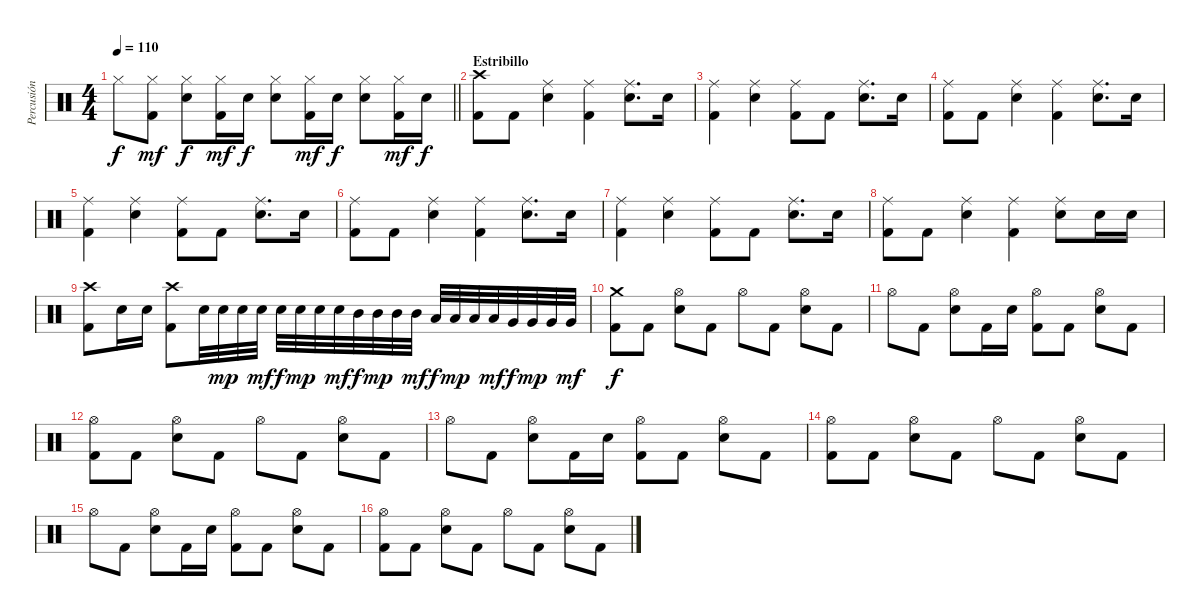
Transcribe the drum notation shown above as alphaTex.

\track ("Percusión" "Percusión") {instrument percussion}
\staff {score}
\articulation defaults
\ts (4 4)
\tempo 110
\clef neutral
\barLineRight lightlight
\ks c "Hi-Hat (closed)".8{dy f}
("Hi-Hat (closed)" "Kick (hit) 2").8{dy mf} ("Hi-Hat (closed)" "Electric Snare (hit)").8{dy f} ("Hi-Hat (closed)" "Kick (hit) 2").16{dy mf} "Electric Snare (hit)".16{dy f} ("Hi-Hat (closed)" "Electric Snare (hit)").8 ("Hi-Hat (closed)" "Kick (hit) 2").16{dy mf} "Electric Snare (hit)".16{dy f} ("Hi-Hat (closed)" "Electric Snare (hit)").8 ("Hi-Hat (closed)" "Kick (hit) 2").16{dy mf} "Electric Snare (hit)".16{dy f} |
\section ("" "Estribillo")
("Crash high (hit)" "Kick (hit) 2").8 "Kick (hit) 2".8 ("Ride (middle)" "Electric Snare (hit)").4 ("Ride (middle)" "Kick (hit) 2").4 ("Ride (middle)" "Electric Snare (hit)").8{d} "Electric Snare (hit)".16 |
("Ride (middle)" "Kick (hit) 2").4 ("Ride (middle)" "Electric Snare (hit)").4 ("Ride (middle)" "Kick (hit) 2").8 "Kick (hit) 2".8 ("Ride (middle)" "Electric Snare (hit)").8{d} "Electric Snare (hit)".16 |
("Ride (middle)" "Kick (hit) 2").8 "Kick (hit) 2".8 ("Ride (middle)" "Electric Snare (hit)").4 ("Ride (middle)" "Kick (hit) 2").4 ("Ride (middle)" "Electric Snare (hit)").8{d} "Electric Snare (hit)".16 |
("Ride (middle)" "Kick (hit) 2").4 ("Ride (middle)" "Electric Snare (hit)").4 ("Ride (middle)" "Kick (hit) 2").8 "Kick (hit) 2".8 ("Ride (middle)" "Electric Snare (hit)").8{d} "Electric Snare (hit)".16 |
("Ride (middle)" "Kick (hit) 2").8 "Kick (hit) 2".8 ("Ride (middle)" "Electric Snare (hit)").4 ("Ride (middle)" "Kick (hit) 2").4 ("Ride (middle)" "Electric Snare (hit)").8{d} "Electric Snare (hit)".16 |
("Ride (middle)" "Kick (hit) 2").4 ("Ride (middle)" "Electric Snare (hit)").4 ("Ride (middle)" "Kick (hit) 2").8 "Kick (hit) 2".8 ("Ride (middle)" "Electric Snare (hit)").8{d} "Electric Snare (hit)".16 |
("Ride (middle)" "Kick (hit) 2").8 "Kick (hit) 2".8 ("Ride (middle)" "Electric Snare (hit)").4 ("Ride (middle)" "Kick (hit) 2").4 ("Ride (middle)" "Electric Snare (hit)").8 "Electric Snare (hit)".16 "Electric Snare (hit)".16 |
("Crash high (hit)" "Kick (hit) 2").8 "Electric Snare (hit)".16 "Electric Snare (hit)".16 ("Crash high (hit)" "Kick (hit) 2").8 "Electric Snare (hit)".32 "Electric Snare (hit)".32{dy mp} "Electric Snare (hit)".32 "Electric Snare (hit)".32{dy mf} "Electric Snare (hit)".32{dy f} "Electric Snare (hit)".32{dy mp} "Electric Snare (hit)".32 "Electric Snare (hit)".32{dy mf} "Mid Tom (hit)".32{dy f} "Mid Tom (hit)".32{dy mp} "Mid Tom (hit)".32 "Mid Tom (hit)".32{dy mf} "Low Tom (hit)".32{dy f} "Low Tom (hit)".32{dy mp} "Low Tom (hit)".32 "Low Tom (hit)".32{dy mf} "Very Low Tom (hit)".32{dy f} "Very Low Tom (hit)".32{dy mp} "Very Low Tom (hit)".32 "Very Low Tom (hit)".32{dy mf} |
("Crash medium (hit)" "Kick (hit) 2").8{dy f} "Kick (hit) 2".8 ("Hi-Hat (open)" "Electric Snare (hit)").8 "Kick (hit) 2".8 "Hi-Hat (open)".8 "Kick (hit) 2".8 ("Hi-Hat (open)" "Electric Snare (hit)").8 "Kick (hit) 2".8 |
"Hi-Hat (open)".8 "Kick (hit) 2".8 ("Hi-Hat (open)" "Electric Snare (hit)").8 "Kick (hit) 2".16 "Electric Snare (hit)".16 ("Hi-Hat (open)" "Kick (hit) 2").8 "Kick (hit) 2".8 ("Hi-Hat (open)" "Electric Snare (hit)").8 "Kick (hit) 2".8 |
("Hi-Hat (open)" "Kick (hit) 2").8 "Kick (hit) 2".8 ("Hi-Hat (open)" "Electric Snare (hit)").8 "Kick (hit) 2".8 "Hi-Hat (open)".8 "Kick (hit) 2".8 ("Hi-Hat (open)" "Electric Snare (hit)").8 "Kick (hit) 2".8 |
"Hi-Hat (open)".8 "Kick (hit) 2".8 ("Hi-Hat (open)" "Electric Snare (hit)").8 "Kick (hit) 2".16 "Electric Snare (hit)".16 ("Hi-Hat (open)" "Kick (hit) 2").8 "Kick (hit) 2".8 ("Hi-Hat (open)" "Electric Snare (hit)").8 "Kick (hit) 2".8 |
("Hi-Hat (open)" "Kick (hit) 2").8 "Kick (hit) 2".8 ("Hi-Hat (open)" "Electric Snare (hit)").8 "Kick (hit) 2".8 "Hi-Hat (open)".8 "Kick (hit) 2".8 ("Hi-Hat (open)" "Electric Snare (hit)").8 "Kick (hit) 2".8 |
"Hi-Hat (open)".8 "Kick (hit) 2".8 ("Hi-Hat (open)" "Electric Snare (hit)").8 "Kick (hit) 2".16 "Electric Snare (hit)".16 ("Hi-Hat (open)" "Kick (hit) 2").8 "Kick (hit) 2".8 ("Hi-Hat (open)" "Electric Snare (hit)").8 "Kick (hit) 2".8 |
("Hi-Hat (open)" "Kick (hit) 2").8 "Kick (hit) 2".8 ("Hi-Hat (open)" "Electric Snare (hit)").8 "Kick (hit) 2".8 "Hi-Hat (open)".8 "Kick (hit) 2".8 ("Hi-Hat (open)" "Electric Snare (hit)").8 "Kick (hit) 2".8
